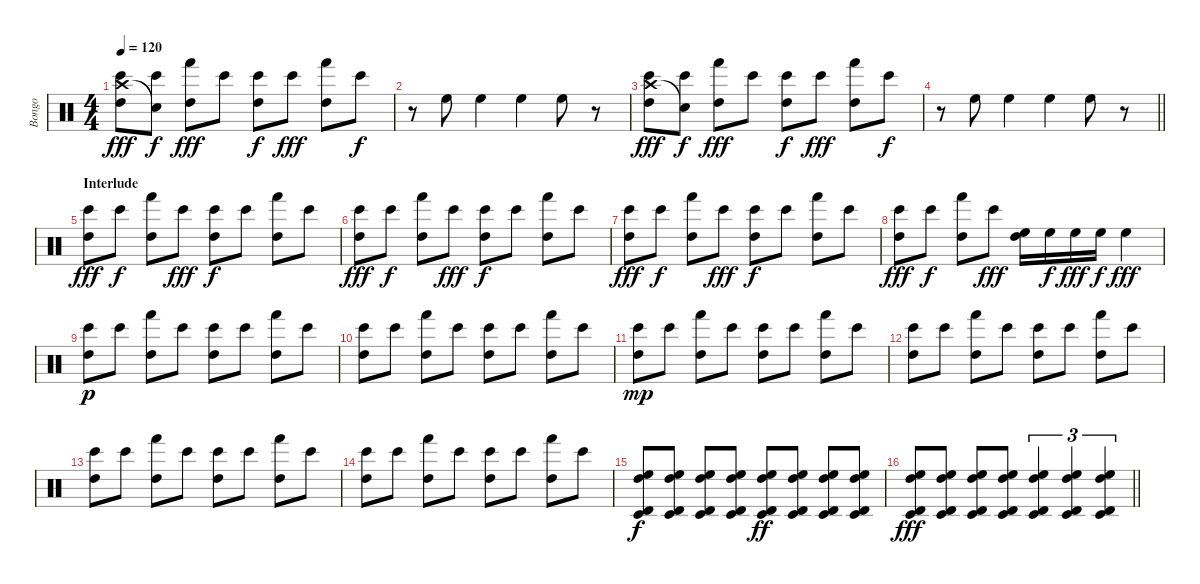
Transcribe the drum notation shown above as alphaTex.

\track ("Bongo" "Bongo") {instrument percussion}
\staff {score}
\articulation defaults
\ts (4 4)
\tempo 120
\clef neutral
\ks c
("Crash high (hit)" "Bongo High (hit)" "High Tom (hit)").8{dy fff} ("Snare (hit)"{t} "Bongo High (hit)").8{dy f} ("Hand (hit)" "High Tom (hit)").8{dy fff} "Bongo High (hit)".8 ("Bongo High (hit)" "High Tom (hit)").8{dy f} "Bongo High (hit)".8{dy fff} ("Hand (hit)" "High Tom (hit)").8 "Bongo High (hit)".8{dy f} |
r.8 "High Floor Tom (hit)".8 "High Floor Tom (hit)".4 "High Floor Tom (hit)".4 "High Floor Tom (hit)".8 r.8 |
("Crash high (hit)" "Bongo High (hit)" "High Tom (hit)").8{dy fff} ("Snare (hit)"{t} "Bongo High (hit)").8{dy f} ("Hand (hit)" "High Tom (hit)").8{dy fff} "Bongo High (hit)".8 ("Bongo High (hit)" "High Tom (hit)").8{dy f} "Bongo High (hit)".8{dy fff} ("Hand (hit)" "High Tom (hit)").8 "Bongo High (hit)".8{dy f} |
\barLineRight lightlight
r.8 "High Floor Tom (hit)".8 "High Floor Tom (hit)".4 "High Floor Tom (hit)".4 "High Floor Tom (hit)".8 r.8 |
\section ("" "Interlude")
("Bongo High (hit)" "High Tom (hit)").8{dy fff} "Bongo High (hit)".8{dy f} ("Hand (hit)" "High Tom (hit)").8 "Bongo High (hit)".8{dy fff} ("Bongo High (hit)" "High Tom (hit)").8{dy f} "Bongo High (hit)".8 ("Hand (hit)" "High Tom (hit)").8 "Bongo High (hit)".8 |
("Bongo High (hit)" "High Tom (hit)").8{dy fff} "Bongo High (hit)".8{dy f} ("Hand (hit)" "High Tom (hit)").8 "Bongo High (hit)".8{dy fff} ("Bongo High (hit)" "High Tom (hit)").8{dy f} "Bongo High (hit)".8 ("Hand (hit)" "High Tom (hit)").8 "Bongo High (hit)".8 |
("Bongo High (hit)" "High Tom (hit)").8{dy fff} "Bongo High (hit)".8{dy f} ("Hand (hit)" "High Tom (hit)").8 "Bongo High (hit)".8{dy fff} ("Bongo High (hit)" "High Tom (hit)").8{dy f} "Bongo High (hit)".8 ("Hand (hit)" "High Tom (hit)").8 "Bongo High (hit)".8 |
("Bongo High (hit)" "High Tom (hit)").8{dy fff} "Bongo High (hit)".8{dy f} ("Hand (hit)" "High Tom (hit)").8 "Bongo High (hit)".8{dy fff} ("High Floor Tom (hit)" "High Tom (hit)").16 "High Floor Tom (hit)".16{dy f} "High Floor Tom (hit)".16{dy fff} "High Floor Tom (hit)".16{dy f} "High Floor Tom (hit)".4{dy fff} |
("Bongo High (hit)" "High Tom (hit)").8{dy p} "Bongo High (hit)".8 ("Hand (hit)" "High Tom (hit)").8 "Bongo High (hit)".8 ("Bongo High (hit)" "High Tom (hit)").8 "Bongo High (hit)".8 ("Hand (hit)" "High Tom (hit)").8 "Bongo High (hit)".8 |
("Bongo High (hit)" "High Tom (hit)").8 "Bongo High (hit)".8 ("Hand (hit)" "High Tom (hit)").8 "Bongo High (hit)".8 ("Bongo High (hit)" "High Tom (hit)").8 "Bongo High (hit)".8 ("Hand (hit)" "High Tom (hit)").8 "Bongo High (hit)".8 |
("Bongo High (hit)" "High Tom (hit)").8{dy mp} "Bongo High (hit)".8 ("Hand (hit)" "High Tom (hit)").8 "Bongo High (hit)".8 ("Bongo High (hit)" "High Tom (hit)").8 "Bongo High (hit)".8 ("Hand (hit)" "High Tom (hit)").8 "Bongo High (hit)".8 |
("Bongo High (hit)" "High Tom (hit)").8 "Bongo High (hit)".8 ("Hand (hit)" "High Tom (hit)").8 "Bongo High (hit)".8 ("Bongo High (hit)" "High Tom (hit)").8 "Bongo High (hit)".8 ("Hand (hit)" "High Tom (hit)").8 "Bongo High (hit)".8 |
("Bongo High (hit)" "High Tom (hit)").8 "Bongo High (hit)".8 ("Hand (hit)" "High Tom (hit)").8 "Bongo High (hit)".8 ("Bongo High (hit)" "High Tom (hit)").8 "Bongo High (hit)".8 ("Hand (hit)" "High Tom (hit)").8 "Bongo High (hit)".8 |
("Bongo High (hit)" "High Tom (hit)").8 "Bongo High (hit)".8 ("Hand (hit)" "High Tom (hit)").8 "Bongo High (hit)".8 ("Bongo High (hit)" "High Tom (hit)").8 "Bongo High (hit)".8 ("Hand (hit)" "High Tom (hit)").8 "Bongo High (hit)".8 |
("Timbale low (hit)" "Timbale high (hit)" "High Floor Tom (hit)" "High Tom (hit)").8{dy f} ("Timbale low (hit)" "Timbale high (hit)" "High Floor Tom (hit)" "High Tom (hit)").8 ("Timbale low (hit)" "Timbale high (hit)" "High Floor Tom (hit)" "High Tom (hit)").8 ("Timbale low (hit)" "Timbale high (hit)" "High Floor Tom (hit)" "High Tom (hit)").8 ("Timbale low (hit)" "Timbale high (hit)" "High Floor Tom (hit)" "High Tom (hit)").8{dy ff} ("Timbale low (hit)" "Timbale high (hit)" "High Floor Tom (hit)" "High Tom (hit)").8 ("Timbale low (hit)" "Timbale high (hit)" "High Floor Tom (hit)" "High Tom (hit)").8 ("Timbale low (hit)" "Timbale high (hit)" "High Floor Tom (hit)" "High Tom (hit)").8 |
\barLineRight lightlight
("Timbale low (hit)" "Timbale high (hit)" "High Floor Tom (hit)" "High Tom (hit)").8{dy fff} ("Timbale low (hit)" "Timbale high (hit)" "High Floor Tom (hit)" "High Tom (hit)").8 ("Timbale low (hit)" "Timbale high (hit)" "High Floor Tom (hit)" "High Tom (hit)").8 ("Timbale low (hit)" "Timbale high (hit)" "High Floor Tom (hit)" "High Tom (hit)").8 ("Timbale low (hit)" "Timbale high (hit)" "High Floor Tom (hit)" "High Tom (hit)").4{tu (3 2)} ("Timbale low (hit)" "Timbale high (hit)" "High Floor Tom (hit)" "High Tom (hit)").4{tu (3 2)} ("Timbale low (hit)" "Timbale high (hit)" "High Floor Tom (hit)" "High Tom (hit)").4{tu (3 2)}
